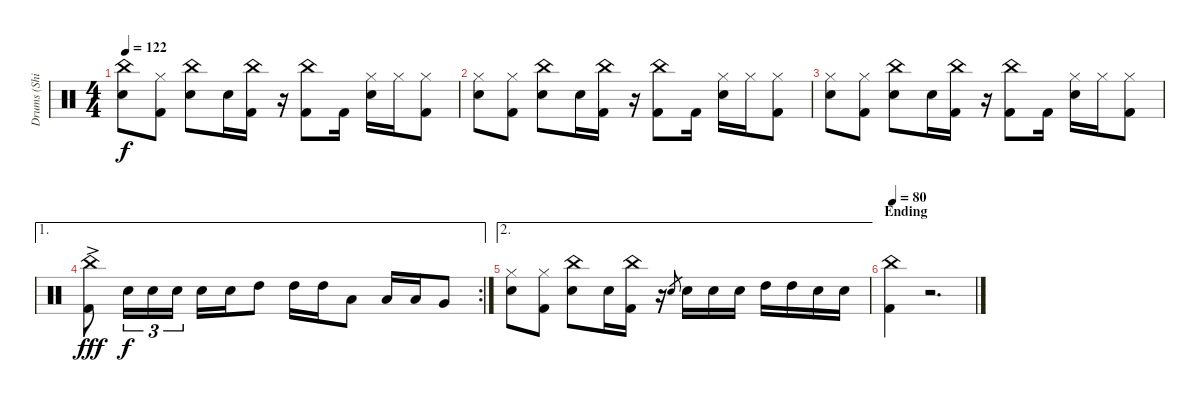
\track ("Drums (Shinya)" "Drums (Shi") {instrument percussion}
\staff {score}
\articulation defaults
\ts (4 4)
\tempo 122
\clef neutral
\ks c
("Snare (hit) 2" "China (hit)").8{dy f} ("Hi-Hat (closed)" "Kick (hit) 2").8 ("Snare (hit) 2" "China (hit)").8 "Snare (hit) 2".16 ("China (hit)" "Kick (hit) 2").16 r.16 ("China (hit)" "Kick (hit) 2").8 "Kick (hit) 2".16 ("Snare (hit) 2" "Hi-Hat (closed)").16 "Hi-Hat (closed)".16 ("Hi-Hat (closed)" "Kick (hit) 2").8 |
("Snare (hit) 2" "Hi-Hat (closed)").8 ("Hi-Hat (closed)" "Kick (hit) 2").8 ("Snare (hit) 2" "China (hit)").8 "Snare (hit) 2".16 ("China (hit)" "Kick (hit) 2").16 r.16 ("China (hit)" "Kick (hit) 2").8 "Kick (hit) 2".16 ("Snare (hit) 2" "Hi-Hat (closed)").16 "Hi-Hat (closed)".16 ("Hi-Hat (closed)" "Kick (hit) 2").8 |
("Snare (hit) 2" "Hi-Hat (closed)").8 ("Hi-Hat (closed)" "Kick (hit) 2").8 ("Snare (hit) 2" "China (hit)").8 "Snare (hit) 2".16 ("China (hit)" "Kick (hit) 2").16 r.16 ("China (hit)" "Kick (hit) 2").8 "Kick (hit) 2".16 ("Snare (hit) 2" "Hi-Hat (closed)").16 "Hi-Hat (closed)".16 ("Hi-Hat (closed)" "Kick (hit) 2").8 |
\ae 1
\rc 2
("China (hit)"{ac} "Kick (hit) 2"{ac}).8{dy fff} "Snare (hit) 2".16{tu (3 2) dy f} "Snare (hit) 2".16{tu (3 2)} "Snare (hit) 2".16{tu (3 2)} "Snare (hit) 2".16 "Snare (hit) 2".16 "High Tom (hit)".8 "High Tom (hit)".16 "High Tom (hit)".16 "Low Tom (hit)".8 "Low Tom (hit)".16 "Low Tom (hit)".16 "Very Low Tom (hit)".8 |
\ae 2
("Snare (hit) 2" "Hi-Hat (closed)").8 ("Hi-Hat (closed)" "Kick (hit) 2").8 ("Snare (hit) 2" "China (hit)").8 "Snare (hit) 2".16 ("China (hit)" "Kick (hit) 2").16 r.16 "Snare (hit) 2".8{gr} "Snare (hit) 2".16 "Snare (hit) 2".16 "Snare (hit) 2".16 "High Tom (hit)".16 "High Tom (hit)".16 "Snare (hit) 2".16 "Snare (hit) 2".16 |
\section ("" "Ending")
\tempo 80
("China (hit)" "Kick (hit) 2").4 r.2{d}
